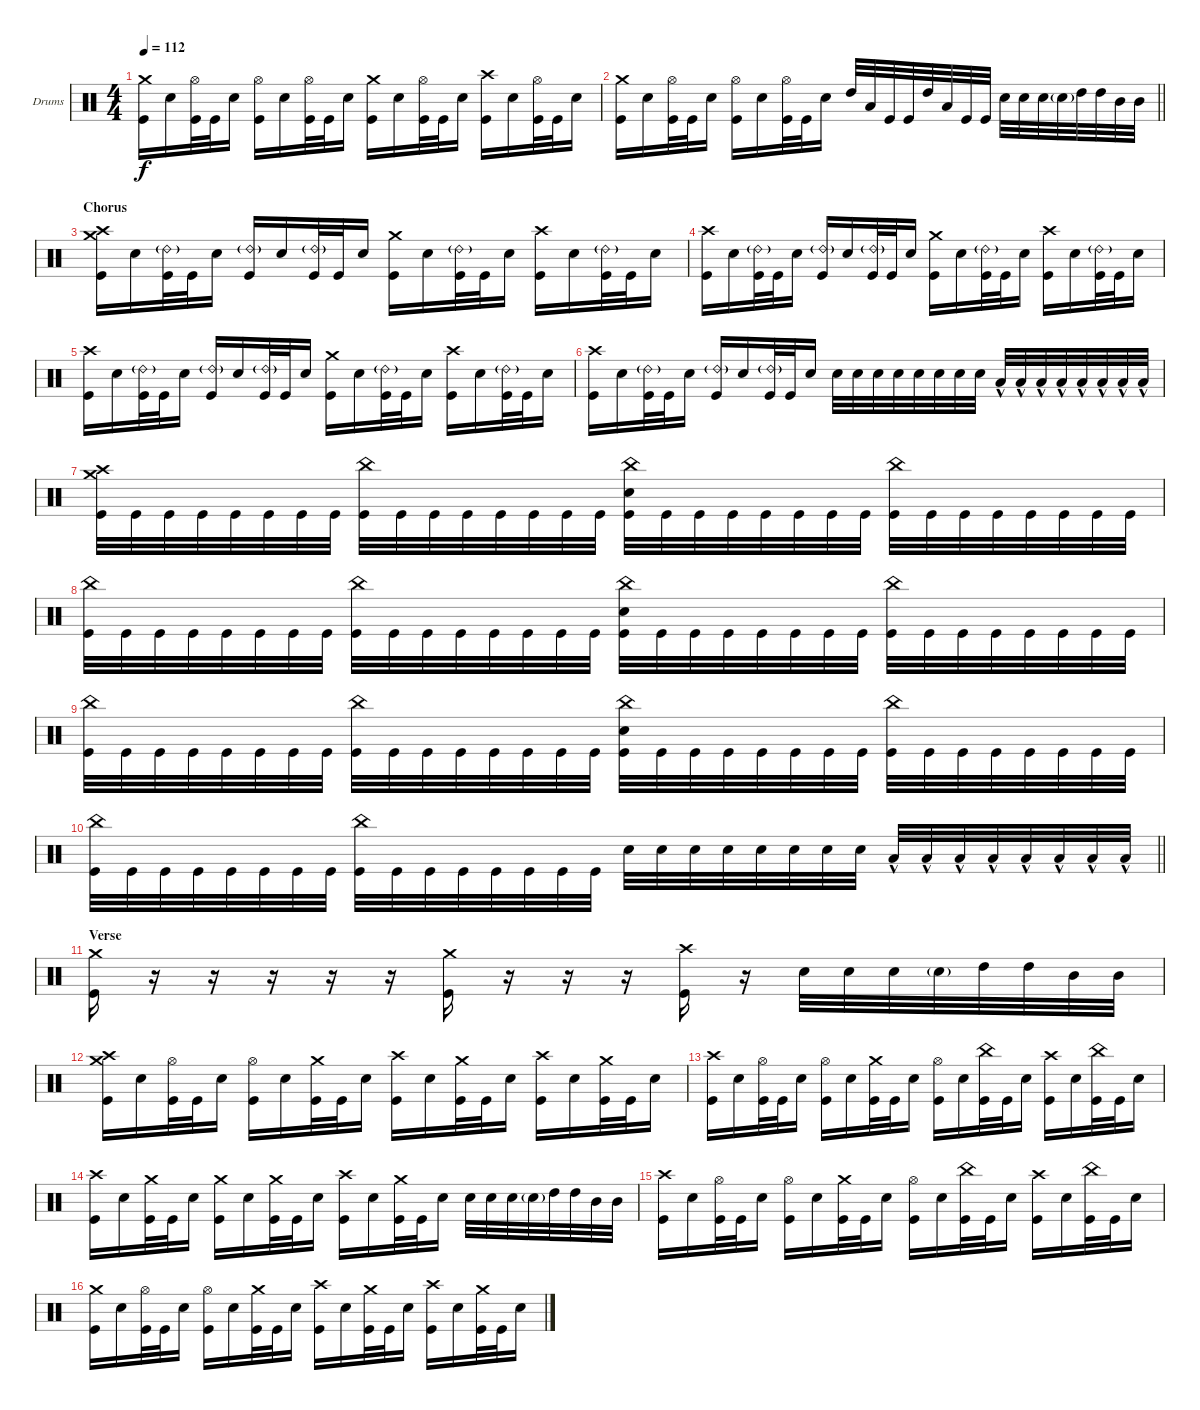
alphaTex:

\bracketExtendMode groupsimilarinstruments
\firstSystemTrackNameOrientation horizontal
\otherSystemsTrackNameOrientation horizontal
\track ("Drumkit" "Drums") {instrument percussion}
\staff {score}
\articulation defaults
\ts (4 4)
\tempo 112
\clef neutral
\scale
0.333333
\ks c
("Kick (hit)" "Crash medium (hit)").16{dy f} "Snare (hit) 2".16 ("Kick (hit)" "Hi-Hat (open)").32 "Kick (hit)".32 "Snare (hit) 2".16 ("Kick (hit)" "Hi-Hat (open)").16 "Snare (hit) 2".16 ("Kick (hit)" "Hi-Hat (open)").32 "Kick (hit)".32 "Snare (hit) 2".16 ("Kick (hit)" "Crash medium (hit)").16 "Snare (hit) 2".16 ("Kick (hit)" "Hi-Hat (open)").32 "Kick (hit)".32 "Snare (hit) 2".16 ("Kick (hit)" "Crash high (hit)").16 "Snare (hit) 2".16 ("Kick (hit)" "Hi-Hat (open)").32 "Kick (hit)".32 "Snare (hit) 2".16 |
\scale
0.333333
\barLineRight lightlight
("Kick (hit)" "Crash medium (hit)").16 "Snare (hit) 2".16 ("Kick (hit)" "Hi-Hat (open)").32 "Kick (hit)".32 "Snare (hit) 2".16 ("Kick (hit)" "Hi-Hat (open)").16 "Snare (hit) 2".16 ("Kick (hit)" "Hi-Hat (open)").32 "Kick (hit)".32 "Snare (hit) 2".16 "High Tom (hit)".32 "Low Tom (hit)".32 "Kick (hit)".32 "Kick (hit)".32 "High Tom (hit)".32 "Low Tom (hit)".32 "Kick (hit)".32 "Kick (hit)".32 "Snare (hit) 2".32 "Snare (hit) 2".32 "Snare (hit) 2".32 "Snare (hit) 2"{g}.32 "High Tom (hit)".32 "High Tom (hit)".32 "Mid Tom (hit)".32 "Mid Tom (hit)".32 |
\section ("" "Chorus")
\scale
0.333333 ("Kick (hit)" "Crash medium (hit)" "Crash high (hit)").16 "Snare (hit) 2".16 ("Kick (hit)" "Ride (bell) 2"{g}).32 "Kick (hit)".32 "Snare (hit) 2".16 ("Kick (hit)" "Ride (bell) 2"{g}).16 "Snare (hit) 2".16 ("Kick (hit)" "Ride (bell) 2"{g}).32 "Kick (hit)".32 "Snare (hit) 2".16 ("Kick (hit)" "Crash medium (hit)").16 "Snare (hit) 2".16 ("Kick (hit)" "Ride (bell) 2"{g}).32 "Kick (hit)".32 "Snare (hit) 2".16 ("Kick (hit)" "Crash high (hit)").16 "Snare (hit) 2".16 ("Kick (hit)" "Ride (bell) 2"{g}).32 "Kick (hit)".32 "Snare (hit) 2".16 |
\scale
0.333333 ("Kick (hit)" "Crash high (hit)").16 "Snare (hit) 2".16 ("Kick (hit)" "Ride (bell) 2"{g}).32 "Kick (hit)".32 "Snare (hit) 2".16 ("Kick (hit)" "Ride (bell) 2"{g}).16 "Snare (hit) 2".16 ("Kick (hit)" "Ride (bell) 2"{g}).32 "Kick (hit)".32 "Snare (hit) 2".16 ("Kick (hit)" "Crash medium (hit)").16 "Snare (hit) 2".16 ("Kick (hit)" "Ride (bell) 2"{g}).32 "Kick (hit)".32 "Snare (hit) 2".16 ("Kick (hit)" "Crash high (hit)").16 "Snare (hit) 2".16 ("Kick (hit)" "Ride (bell) 2"{g}).32 "Kick (hit)".32 "Snare (hit) 2".16 |
\scale
0.333333 ("Kick (hit)" "Crash high (hit)").16 "Snare (hit) 2".16 ("Kick (hit)" "Ride (bell) 2"{g}).32 "Kick (hit)".32 "Snare (hit) 2".16 ("Kick (hit)" "Ride (bell) 2"{g}).16 "Snare (hit) 2".16 ("Kick (hit)" "Ride (bell) 2"{g}).32 "Kick (hit)".32 "Snare (hit) 2".16 ("Kick (hit)" "Crash medium (hit)").16 "Snare (hit) 2".16 ("Kick (hit)" "Ride (bell) 2"{g}).32 "Kick (hit)".32 "Snare (hit) 2".16 ("Kick (hit)" "Crash high (hit)").16 "Snare (hit) 2".16 ("Kick (hit)" "Ride (bell) 2"{g}).32 "Kick (hit)".32 "Snare (hit) 2".16 |
\scale
0.333333 ("Kick (hit)" "Crash high (hit)").16 "Snare (hit) 2".16 ("Kick (hit)" "Ride (bell) 2"{g}).32 "Kick (hit)".32 "Snare (hit) 2".16 ("Kick (hit)" "Ride (bell) 2"{g}).16 "Snare (hit) 2".16 ("Kick (hit)" "Ride (bell) 2"{g}).32 "Kick (hit)".32 "Snare (hit) 2".16 "Snare (hit) 2".32 "Snare (hit) 2".32 "Snare (hit) 2".32 "Snare (hit) 2".32 "Snare (hit) 2".32 "Snare (hit) 2".32 "Snare (hit) 2".32 "Snare (hit) 2".32 "Low Tom (hit)"{hac}.32 "Low Tom (hit)"{hac}.32 "Low Tom (hit)"{hac}.32 "Low Tom (hit)"{hac}.32 "Low Tom (hit)"{hac}.32 "Low Tom (hit)"{hac}.32 "Low Tom (hit)"{hac}.32 "Low Tom (hit)"{hac}.32 |
\scale
0.333333 ("Kick (hit)" "Crash medium (hit)" "Crash high (hit)").32 "Kick (hit)".32 "Kick (hit)".32 "Kick (hit)".32 "Kick (hit)".32 "Kick (hit)".32 "Kick (hit)".32 "Kick (hit)".32 ("Kick (hit)" "China (hit)").32 "Kick (hit)".32 "Kick (hit)".32 "Kick (hit)".32 "Kick (hit)".32 "Kick (hit)".32 "Kick (hit)".32 "Kick (hit)".32 ("Kick (hit)" "Snare (hit) 2" "China (hit)").32 "Kick (hit)".32 "Kick (hit)".32 "Kick (hit)".32 "Kick (hit)".32 "Kick (hit)".32 "Kick (hit)".32 "Kick (hit)".32 ("Kick (hit)" "China (hit)").32 "Kick (hit)".32 "Kick (hit)".32 "Kick (hit)".32 "Kick (hit)".32 "Kick (hit)".32 "Kick (hit)".32 "Kick (hit)".32 |
\scale
0.333333 ("Kick (hit)" "China (hit)").32 "Kick (hit)".32 "Kick (hit)".32 "Kick (hit)".32 "Kick (hit)".32 "Kick (hit)".32 "Kick (hit)".32 "Kick (hit)".32 ("Kick (hit)" "China (hit)").32 "Kick (hit)".32 "Kick (hit)".32 "Kick (hit)".32 "Kick (hit)".32 "Kick (hit)".32 "Kick (hit)".32 "Kick (hit)".32 ("Kick (hit)" "Snare (hit) 2" "China (hit)").32 "Kick (hit)".32 "Kick (hit)".32 "Kick (hit)".32 "Kick (hit)".32 "Kick (hit)".32 "Kick (hit)".32 "Kick (hit)".32 ("Kick (hit)" "China (hit)").32 "Kick (hit)".32 "Kick (hit)".32 "Kick (hit)".32 "Kick (hit)".32 "Kick (hit)".32 "Kick (hit)".32 "Kick (hit)".32 |
\scale
0.333333 ("Kick (hit)" "China (hit)").32 "Kick (hit)".32 "Kick (hit)".32 "Kick (hit)".32 "Kick (hit)".32 "Kick (hit)".32 "Kick (hit)".32 "Kick (hit)".32 ("Kick (hit)" "China (hit)").32 "Kick (hit)".32 "Kick (hit)".32 "Kick (hit)".32 "Kick (hit)".32 "Kick (hit)".32 "Kick (hit)".32 "Kick (hit)".32 ("Kick (hit)" "Snare (hit) 2" "China (hit)").32 "Kick (hit)".32 "Kick (hit)".32 "Kick (hit)".32 "Kick (hit)".32 "Kick (hit)".32 "Kick (hit)".32 "Kick (hit)".32 ("Kick (hit)" "China (hit)").32 "Kick (hit)".32 "Kick (hit)".32 "Kick (hit)".32 "Kick (hit)".32 "Kick (hit)".32 "Kick (hit)".32 "Kick (hit)".32 |
\scale
0.333333
\barLineRight lightlight
("Kick (hit)" "China (hit)").32 "Kick (hit)".32 "Kick (hit)".32 "Kick (hit)".32 "Kick (hit)".32 "Kick (hit)".32 "Kick (hit)".32 "Kick (hit)".32 ("Kick (hit)" "China (hit)").32 "Kick (hit)".32 "Kick (hit)".32 "Kick (hit)".32 "Kick (hit)".32 "Kick (hit)".32 "Kick (hit)".32 "Kick (hit)".32 "Snare (hit) 2".32 "Snare (hit) 2".32 "Snare (hit) 2".32 "Snare (hit) 2".32 "Snare (hit) 2".32 "Snare (hit) 2".32 "Snare (hit) 2".32 "Snare (hit) 2".32 "Low Tom (hit)"{hac}.32 "Low Tom (hit)"{hac}.32 "Low Tom (hit)"{hac}.32 "Low Tom (hit)"{hac}.32 "Low Tom (hit)"{hac}.32 "Low Tom (hit)"{hac}.32 "Low Tom (hit)"{hac}.32 "Low Tom (hit)"{hac}.32 |
\section ("" "Verse")
\scale
0.333333 ("Kick (hit)" "Crash medium (hit)").16 r.16 r.16 r.16 r.16 r.16 ("Kick (hit)" "Crash medium (hit)").16 r.16 r.16 r.16 ("Kick (hit)" "Crash high (hit)").16 r.16 "Snare (hit) 2".32 "Snare (hit) 2".32 "Snare (hit) 2".32 "Snare (hit) 2"{g}.32 "High Tom (hit)".32 "High Tom (hit)".32 "Mid Tom (hit)".32 "Mid Tom (hit)".32 |
\scale
0.333333 ("Kick (hit)" "Crash medium (hit)" "Crash high (hit)").16 "Snare (hit) 2".16 ("Kick (hit)" "Hi-Hat (open)").32 "Kick (hit)".32 "Snare (hit) 2".16 ("Kick (hit)" "Hi-Hat (open)").16 "Snare (hit) 2".16 ("Kick (hit)" "Crash medium (hit)").32 "Kick (hit)".32 "Snare (hit) 2".16 ("Kick (hit)" "Crash high (hit)").16 "Snare (hit) 2".16 ("Kick (hit)" "Crash medium (hit)").32 "Kick (hit)".32 "Snare (hit) 2".16 ("Kick (hit)" "Crash high (hit)").16 "Snare (hit) 2".16 ("Kick (hit)" "Crash medium (hit)").32 "Kick (hit)".32 "Snare (hit) 2".16 |
\scale
0.333333 ("Kick (hit)" "Crash high (hit)").16 "Snare (hit) 2".16 ("Kick (hit)" "Hi-Hat (open)").32 "Kick (hit)".32 "Snare (hit) 2".16 ("Kick (hit)" "Hi-Hat (open)").16 "Snare (hit) 2".16 ("Kick (hit)" "Crash medium (hit)").32 "Kick (hit)".32 "Snare (hit) 2".16 ("Kick (hit)" "Hi-Hat (open)").16 "Snare (hit) 2".16 ("Kick (hit)" "China (hit)").32 "Kick (hit)".32 "Snare (hit) 2".16 ("Kick (hit)" "Crash high (hit)").16 "Snare (hit) 2".16 ("Kick (hit)" "China (hit)").32 "Kick (hit)".32 "Snare (hit) 2".16 |
\scale
0.333333 ("Kick (hit)" "Crash high (hit)").16 "Snare (hit) 2".16 ("Kick (hit)" "Crash medium (hit)").32 "Kick (hit)".32 "Snare (hit) 2".16 ("Kick (hit)" "Crash medium (hit)").16 "Snare (hit) 2".16 ("Kick (hit)" "Crash medium (hit)").32 "Kick (hit)".32 "Snare (hit) 2".16 ("Kick (hit)" "Crash high (hit)").16 "Snare (hit) 2".16 ("Kick (hit)" "Crash medium (hit)").32 "Kick (hit)".32 "Snare (hit) 2".16 "Snare (hit) 2".32 "Snare (hit) 2".32 "Snare (hit) 2".32 "Snare (hit) 2"{g}.32 "High Tom (hit)".32 "High Tom (hit)".32 "Mid Tom (hit)".32 "Mid Tom (hit)".32 |
\scale
0.333333 ("Kick (hit)" "Crash high (hit)").16 "Snare (hit) 2".16 ("Kick (hit)" "Hi-Hat (open)").32 "Kick (hit)".32 "Snare (hit) 2".16 ("Kick (hit)" "Hi-Hat (open)").16 "Snare (hit) 2".16 ("Kick (hit)" "Crash medium (hit)").32 "Kick (hit)".32 "Snare (hit) 2".16 ("Kick (hit)" "Hi-Hat (open)").16 "Snare (hit) 2".16 ("Kick (hit)" "China (hit)").32 "Kick (hit)".32 "Snare (hit) 2".16 ("Kick (hit)" "Crash high (hit)").16 "Snare (hit) 2".16 ("Kick (hit)" "China (hit)").32 "Kick (hit)".32 "Snare (hit) 2".16 |
\scale
0.333333 ("Kick (hit)" "Crash medium (hit)").16 "Snare (hit) 2".16 ("Kick (hit)" "Hi-Hat (open)").32 "Kick (hit)".32 "Snare (hit) 2".16 ("Kick (hit)" "Hi-Hat (open)").16 "Snare (hit) 2".16 ("Kick (hit)" "Crash medium (hit)").32 "Kick (hit)".32 "Snare (hit) 2".16 ("Kick (hit)" "Crash high (hit)").16 "Snare (hit) 2".16 ("Kick (hit)" "Crash medium (hit)").32 "Kick (hit)".32 "Snare (hit) 2".16 ("Kick (hit)" "Crash high (hit)").16 "Snare (hit) 2".16 ("Kick (hit)" "Crash medium (hit)").32 "Kick (hit)".32 "Snare (hit) 2".16
